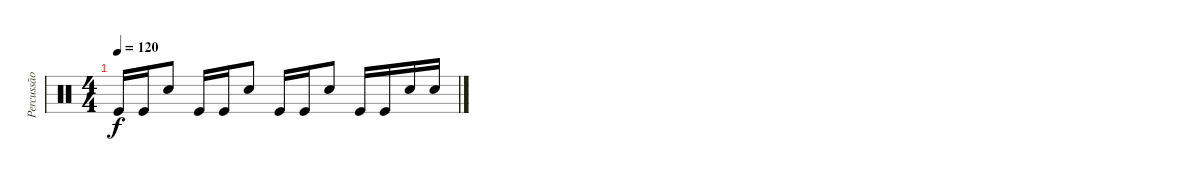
\track ("Percussão" "Percussão") {instrument percussion}
\staff {score}
\articulation defaults
\ts (4 4)
\tempo 120
\clef neutral
\ks c "Kick (hit)".16{dy f} "Kick (hit)".16 "Snare (hit) 2".8 "Kick (hit)".16 "Kick (hit)".16 "Snare (hit) 2".8 "Kick (hit)".16 "Kick (hit)".16 "Snare (hit) 2".8 "Kick (hit)".16 "Kick (hit)".16 "Snare (hit) 2".16 "Snare (hit) 2".16
